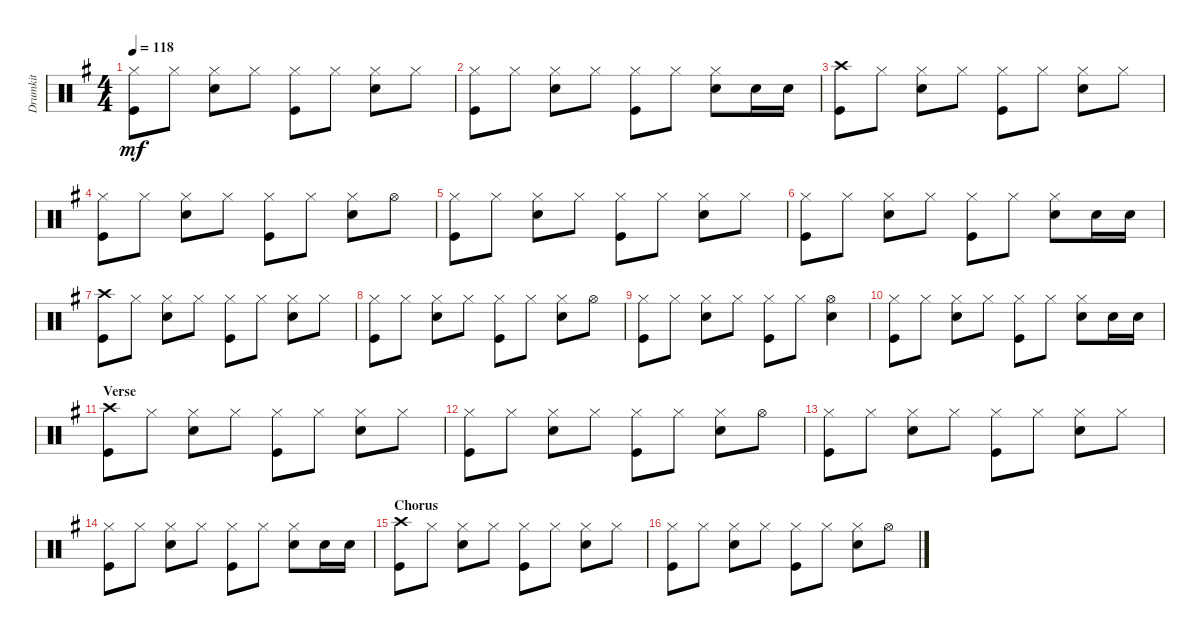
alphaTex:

\track ("Drumkit" "Drumkit") {instrument percussion}
\staff {score}
\articulation defaults
\ts (4 4)
\tempo 118
\clef neutral
\ks g
("Hi-Hat (closed)" "Kick (hit)").8{dy mf} "Hi-Hat (closed)".8 ("Hi-Hat (closed)" "Snare (hit) 2").8 "Hi-Hat (closed)".8 ("Hi-Hat (closed)" "Kick (hit)").8 "Hi-Hat (closed)".8 ("Hi-Hat (closed)" "Snare (hit) 2").8 "Hi-Hat (closed)".8 |
("Hi-Hat (closed)" "Kick (hit)").8 "Hi-Hat (closed)".8 ("Hi-Hat (closed)" "Snare (hit) 2").8 "Hi-Hat (closed)".8 ("Hi-Hat (closed)" "Kick (hit)").8 "Hi-Hat (closed)".8 ("Hi-Hat (closed)" "Snare (hit) 2").8 "Snare (hit) 2".16 "Snare (hit) 2".16 |
("Crash high (hit)" "Kick (hit)").8 "Hi-Hat (closed)".8 ("Hi-Hat (closed)" "Snare (hit) 2").8 "Hi-Hat (closed)".8 ("Hi-Hat (closed)" "Kick (hit)").8 "Hi-Hat (closed)".8 ("Hi-Hat (closed)" "Snare (hit) 2").8 "Hi-Hat (closed)".8 |
("Hi-Hat (closed)" "Kick (hit)").8 "Hi-Hat (closed)".8 ("Hi-Hat (closed)" "Snare (hit) 2").8 "Hi-Hat (closed)".8 ("Hi-Hat (closed)" "Kick (hit)").8 "Hi-Hat (closed)".8 ("Hi-Hat (closed)" "Snare (hit) 2").8 "Hi-Hat (open)".8 |
("Hi-Hat (closed)" "Kick (hit)").8 "Hi-Hat (closed)".8 ("Hi-Hat (closed)" "Snare (hit) 2").8 "Hi-Hat (closed)".8 ("Hi-Hat (closed)" "Kick (hit)").8 "Hi-Hat (closed)".8 ("Hi-Hat (closed)" "Snare (hit) 2").8 "Hi-Hat (closed)".8 |
("Hi-Hat (closed)" "Kick (hit)").8 "Hi-Hat (closed)".8 ("Hi-Hat (closed)" "Snare (hit) 2").8 "Hi-Hat (closed)".8 ("Hi-Hat (closed)" "Kick (hit)").8 "Hi-Hat (closed)".8 ("Hi-Hat (closed)" "Snare (hit) 2").8 "Snare (hit) 2".16 "Snare (hit) 2".16 |
("Crash high (hit)" "Kick (hit)").8 "Hi-Hat (closed)".8 ("Hi-Hat (closed)" "Snare (hit) 2").8 "Hi-Hat (closed)".8 ("Hi-Hat (closed)" "Kick (hit)").8 "Hi-Hat (closed)".8 ("Hi-Hat (closed)" "Snare (hit) 2").8 "Hi-Hat (closed)".8 |
("Hi-Hat (closed)" "Kick (hit)").8 "Hi-Hat (closed)".8 ("Hi-Hat (closed)" "Snare (hit) 2").8 "Hi-Hat (closed)".8 ("Hi-Hat (closed)" "Kick (hit)").8 "Hi-Hat (closed)".8 ("Hi-Hat (closed)" "Snare (hit) 2").8 "Hi-Hat (open)".8 |
("Hi-Hat (closed)" "Kick (hit)").8 "Hi-Hat (closed)".8 ("Hi-Hat (closed)" "Snare (hit) 2").8 "Hi-Hat (closed)".8 ("Hi-Hat (closed)" "Kick (hit)").8 "Hi-Hat (closed)".8 ("Hi-Hat (open)" "Snare (hit) 2").4 |
("Hi-Hat (closed)" "Kick (hit)").8 "Hi-Hat (closed)".8 ("Hi-Hat (closed)" "Snare (hit) 2").8 "Hi-Hat (closed)".8 ("Hi-Hat (closed)" "Kick (hit)").8 "Hi-Hat (closed)".8 ("Hi-Hat (closed)" "Snare (hit) 2").8 "Snare (hit) 2".16 "Snare (hit) 2".16 |
\section ("" "Verse")
("Crash high (hit)" "Kick (hit)").8 "Hi-Hat (closed)".8 ("Hi-Hat (closed)" "Snare (hit) 2").8 "Hi-Hat (closed)".8 ("Hi-Hat (closed)" "Kick (hit)").8 "Hi-Hat (closed)".8 ("Hi-Hat (closed)" "Snare (hit) 2").8 "Hi-Hat (closed)".8 |
("Hi-Hat (closed)" "Kick (hit)").8 "Hi-Hat (closed)".8 ("Hi-Hat (closed)" "Snare (hit) 2").8 "Hi-Hat (closed)".8 ("Hi-Hat (closed)" "Kick (hit)").8 "Hi-Hat (closed)".8 ("Hi-Hat (closed)" "Snare (hit) 2").8 "Hi-Hat (open)".8 |
("Hi-Hat (closed)" "Kick (hit)").8 "Hi-Hat (closed)".8 ("Hi-Hat (closed)" "Snare (hit) 2").8 "Hi-Hat (closed)".8 ("Hi-Hat (closed)" "Kick (hit)").8 "Hi-Hat (closed)".8 ("Hi-Hat (closed)" "Snare (hit) 2").8 "Hi-Hat (closed)".8 |
("Hi-Hat (closed)" "Kick (hit)").8 "Hi-Hat (closed)".8 ("Hi-Hat (closed)" "Snare (hit) 2").8 "Hi-Hat (closed)".8 ("Hi-Hat (closed)" "Kick (hit)").8 "Hi-Hat (closed)".8 ("Hi-Hat (closed)" "Snare (hit) 2").8 "Snare (hit) 2".16 "Snare (hit) 2".16 |
\section ("" "Chorus")
("Crash high (hit)" "Kick (hit)").8 "Hi-Hat (closed)".8 ("Hi-Hat (closed)" "Snare (hit) 2").8 "Hi-Hat (closed)".8 ("Hi-Hat (closed)" "Kick (hit)").8 "Hi-Hat (closed)".8 ("Hi-Hat (closed)" "Snare (hit) 2").8 "Hi-Hat (closed)".8 |
("Hi-Hat (closed)" "Kick (hit)").8 "Hi-Hat (closed)".8 ("Hi-Hat (closed)" "Snare (hit) 2").8 "Hi-Hat (closed)".8 ("Hi-Hat (closed)" "Kick (hit)").8 "Hi-Hat (closed)".8 ("Hi-Hat (closed)" "Snare (hit) 2").8 "Hi-Hat (open)".8
